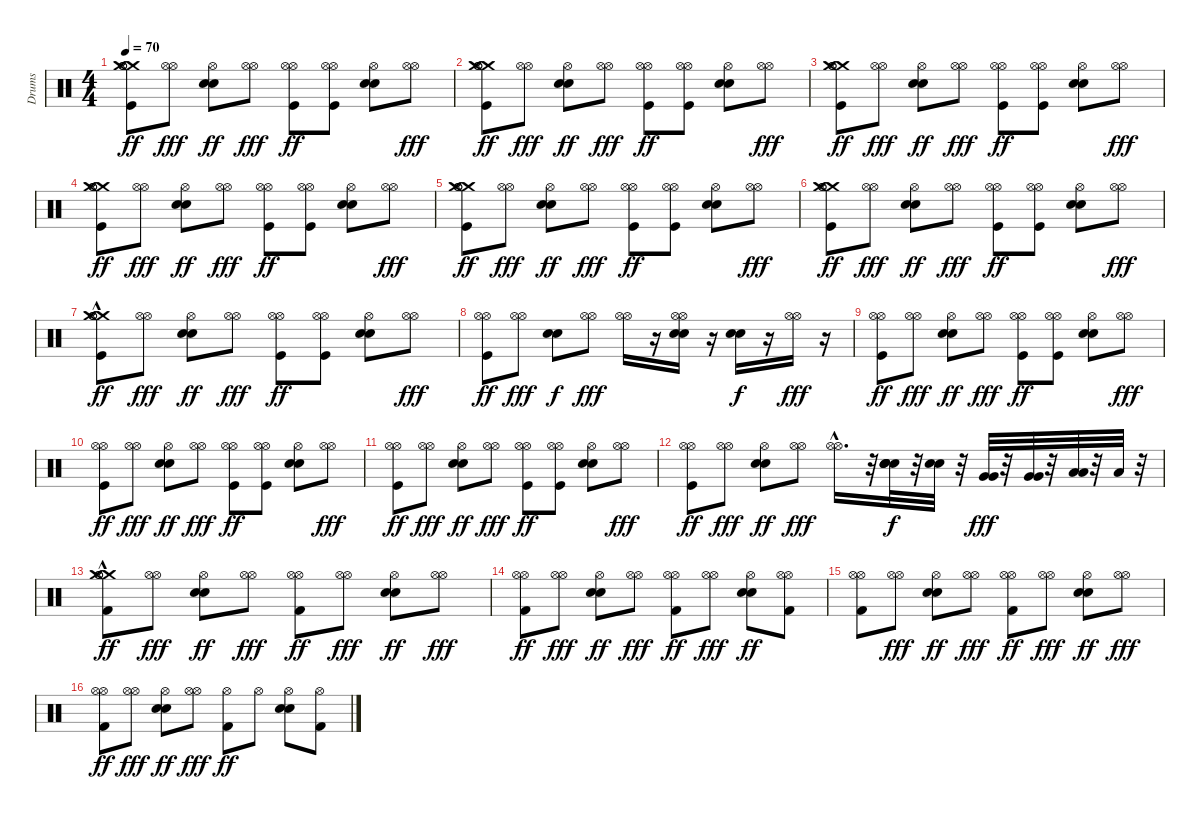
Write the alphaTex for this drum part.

\track ("Drums" "Drums") {instrument percussion}
\staff {score}
\articulation defaults
\ts (4 4)
\tempo 70
\clef neutral
\ks c
("Crash medium (hit)" "Crash medium (hit)" "Hi-Hat (open)" "Hi-Hat (open)" "Kick (hit)").8{dy ff} ("Hi-Hat (open)" "Hi-Hat (open)").8{dy fff} ("Hi-Hat (open)" "Electric Snare (hit)" "Electric Snare (hit)").8{dy ff} ("Hi-Hat (open)" "Hi-Hat (open)").8{dy fff} ("Hi-Hat (open)" "Hi-Hat (open)" "Kick (hit)").8{dy ff} ("Hi-Hat (open)" "Hi-Hat (open)" "Kick (hit)").8 ("Hi-Hat (open)" "Electric Snare (hit)" "Electric Snare (hit)").8 ("Hi-Hat (open)" "Hi-Hat (open)").8{dy fff} |
("Crash medium (hit)" "Crash medium (hit)" "Hi-Hat (open)" "Hi-Hat (open)" "Kick (hit)").8{dy ff} ("Hi-Hat (open)" "Hi-Hat (open)").8{dy fff} ("Hi-Hat (open)" "Electric Snare (hit)" "Electric Snare (hit)").8{dy ff} ("Hi-Hat (open)" "Hi-Hat (open)").8{dy fff} ("Hi-Hat (open)" "Hi-Hat (open)" "Kick (hit)").8{dy ff} ("Hi-Hat (open)" "Hi-Hat (open)" "Kick (hit)").8 ("Hi-Hat (open)" "Electric Snare (hit)" "Electric Snare (hit)").8 ("Hi-Hat (open)" "Hi-Hat (open)").8{dy fff} |
("Crash medium (hit)" "Crash medium (hit)" "Hi-Hat (open)" "Hi-Hat (open)" "Kick (hit)").8{dy ff} ("Hi-Hat (open)" "Hi-Hat (open)").8{dy fff} ("Hi-Hat (open)" "Electric Snare (hit)" "Electric Snare (hit)").8{dy ff} ("Hi-Hat (open)" "Hi-Hat (open)").8{dy fff} ("Hi-Hat (open)" "Hi-Hat (open)" "Kick (hit)").8{dy ff} ("Hi-Hat (open)" "Hi-Hat (open)" "Kick (hit)").8 ("Hi-Hat (open)" "Electric Snare (hit)" "Electric Snare (hit)").8 ("Hi-Hat (open)" "Hi-Hat (open)").8{dy fff} |
("Crash medium (hit)" "Crash medium (hit)" "Hi-Hat (open)" "Hi-Hat (open)" "Kick (hit)").8{dy ff} ("Hi-Hat (open)" "Hi-Hat (open)").8{dy fff} ("Hi-Hat (open)" "Electric Snare (hit)" "Electric Snare (hit)").8{dy ff} ("Hi-Hat (open)" "Hi-Hat (open)").8{dy fff} ("Hi-Hat (open)" "Hi-Hat (open)" "Kick (hit)").8{dy ff} ("Hi-Hat (open)" "Hi-Hat (open)" "Kick (hit)").8 ("Hi-Hat (open)" "Electric Snare (hit)" "Electric Snare (hit)").8 ("Hi-Hat (open)" "Hi-Hat (open)").8{dy fff} |
("Crash medium (hit)" "Crash medium (hit)" "Hi-Hat (open)" "Hi-Hat (open)" "Kick (hit)").8{dy ff} ("Hi-Hat (open)" "Hi-Hat (open)").8{dy fff} ("Hi-Hat (open)" "Electric Snare (hit)" "Electric Snare (hit)").8{dy ff} ("Hi-Hat (open)" "Hi-Hat (open)").8{dy fff} ("Hi-Hat (open)" "Hi-Hat (open)" "Kick (hit)").8{dy ff} ("Hi-Hat (open)" "Hi-Hat (open)" "Kick (hit)").8 ("Hi-Hat (open)" "Electric Snare (hit)" "Electric Snare (hit)").8 ("Hi-Hat (open)" "Hi-Hat (open)").8{dy fff} |
("Crash medium (hit)" "Crash medium (hit)" "Hi-Hat (open)" "Hi-Hat (open)" "Kick (hit)").8{dy ff} ("Hi-Hat (open)" "Hi-Hat (open)").8{dy fff} ("Hi-Hat (open)" "Electric Snare (hit)" "Electric Snare (hit)").8{dy ff} ("Hi-Hat (open)" "Hi-Hat (open)").8{dy fff} ("Hi-Hat (open)" "Hi-Hat (open)" "Kick (hit)").8{dy ff} ("Hi-Hat (open)" "Hi-Hat (open)" "Kick (hit)").8 ("Hi-Hat (open)" "Electric Snare (hit)" "Electric Snare (hit)").8 ("Hi-Hat (open)" "Hi-Hat (open)").8{dy fff} |
("Crash medium (hit)"{hac} "Hi-Hat (open)" "Hi-Hat (open)" "Crash medium (hit)"{hac} "Kick (hit)").8{dy ff} ("Hi-Hat (open)" "Hi-Hat (open)").8{dy fff} ("Hi-Hat (open)" "Electric Snare (hit)" "Electric Snare (hit)").8{dy ff} ("Hi-Hat (open)" "Hi-Hat (open)").8{dy fff} ("Hi-Hat (open)" "Hi-Hat (open)" "Kick (hit)").8{dy ff} ("Hi-Hat (open)" "Hi-Hat (open)" "Kick (hit)").8 ("Hi-Hat (open)" "Electric Snare (hit)" "Electric Snare (hit)").8 ("Hi-Hat (open)" "Hi-Hat (open)").8{dy fff} |
("Hi-Hat (open)" "Hi-Hat (open)" "Kick (hit)").8{dy ff} ("Hi-Hat (open)" "Hi-Hat (open)").8{dy fff} ("Electric Snare (hit)" "Electric Snare (hit)").8{dy f} ("Hi-Hat (open)" "Hi-Hat (open)").8{dy fff} ("Hi-Hat (open)" "Hi-Hat (open)").16 r.16 ("Hi-Hat (open)" "Hi-Hat (open)" "Electric Snare (hit)" "Electric Snare (hit)").16 r.16 ("Electric Snare (hit)" "Electric Snare (hit)").16{dy f} r.16 ("Hi-Hat (open)" "Hi-Hat (open)").16{dy fff} r.16 |
("Hi-Hat (open)" "Hi-Hat (open)" "Kick (hit)").8{dy ff} ("Hi-Hat (open)" "Hi-Hat (open)").8{dy fff} ("Hi-Hat (open)" "Electric Snare (hit)" "Electric Snare (hit)").8{dy ff} ("Hi-Hat (open)" "Hi-Hat (open)").8{dy fff} ("Hi-Hat (open)" "Hi-Hat (open)" "Kick (hit)").8{dy ff} ("Hi-Hat (open)" "Hi-Hat (open)" "Kick (hit)").8 ("Hi-Hat (open)" "Electric Snare (hit)" "Electric Snare (hit)").8 ("Hi-Hat (open)" "Hi-Hat (open)").8{dy fff} |
("Hi-Hat (open)" "Hi-Hat (open)" "Kick (hit)").8{dy ff} ("Hi-Hat (open)" "Hi-Hat (open)").8{dy fff} ("Hi-Hat (open)" "Electric Snare (hit)" "Electric Snare (hit)").8{dy ff} ("Hi-Hat (open)" "Hi-Hat (open)").8{dy fff} ("Hi-Hat (open)" "Hi-Hat (open)" "Kick (hit)").8{dy ff} ("Hi-Hat (open)" "Hi-Hat (open)" "Kick (hit)").8 ("Hi-Hat (open)" "Electric Snare (hit)" "Electric Snare (hit)").8 ("Hi-Hat (open)" "Hi-Hat (open)").8{dy fff} |
("Hi-Hat (open)" "Hi-Hat (open)" "Kick (hit)").8{dy ff} ("Hi-Hat (open)" "Hi-Hat (open)").8{dy fff} ("Hi-Hat (open)" "Electric Snare (hit)" "Electric Snare (hit)").8{dy ff} ("Hi-Hat (open)" "Hi-Hat (open)").8{dy fff} ("Hi-Hat (open)" "Hi-Hat (open)" "Kick (hit)").8{dy ff} ("Hi-Hat (open)" "Hi-Hat (open)" "Kick (hit)").8 ("Hi-Hat (open)" "Electric Snare (hit)" "Electric Snare (hit)").8 ("Hi-Hat (open)" "Hi-Hat (open)").8{dy fff} |
("Hi-Hat (open)" "Hi-Hat (open)" "Kick (hit)").8{dy ff} ("Hi-Hat (open)" "Hi-Hat (open)").8{dy fff} ("Hi-Hat (open)" "Electric Snare (hit)" "Electric Snare (hit)").8{dy ff} ("Hi-Hat (open)" "Hi-Hat (open)").8{dy fff} ("Hi-Hat (open)"{hac} "Hi-Hat (open)"{hac}).16{d} r.32 ("Electric Snare (hit)" "Electric Snare (hit)" "Electric Snare (hit)" "Electric Snare (hit)").32{dy f} r.32 ("Electric Snare (hit)" "Electric Snare (hit)").32 r.32 ("Very Low Tom (hit)" "Very Low Tom (hit)").32{dy fff} r.32 ("Very Low Tom (hit)" "Very Low Tom (hit)").32 r.32 ("Low Floor Tom (hit)" "Low Floor Tom (hit)").32 r.32 "Low Floor Tom (hit)".32 r.32 |
("Crash medium (hit)"{hac} "Crash medium (hit)"{hac} "Hi-Hat (open)" "Hi-Hat (open)" "Kick (hit) 2").8{dy ff} ("Hi-Hat (open)" "Hi-Hat (open)").8{dy fff} ("Hi-Hat (open)" "Electric Snare (hit)" "Electric Snare (hit)").8{dy ff} ("Hi-Hat (open)" "Hi-Hat (open)").8{dy fff} ("Hi-Hat (open)" "Hi-Hat (open)" "Kick (hit) 2").8{dy ff} ("Hi-Hat (open)" "Hi-Hat (open)").8{dy fff} ("Hi-Hat (open)" "Electric Snare (hit)" "Electric Snare (hit)").8{dy ff} ("Hi-Hat (open)" "Hi-Hat (open)").8{dy fff} |
("Hi-Hat (open)" "Hi-Hat (open)" "Kick (hit) 2").8{dy ff} ("Hi-Hat (open)" "Hi-Hat (open)").8{dy fff} ("Hi-Hat (open)" "Electric Snare (hit)" "Electric Snare (hit)").8{dy ff} ("Hi-Hat (open)" "Hi-Hat (open)").8{dy fff} ("Hi-Hat (open)" "Hi-Hat (open)" "Kick (hit) 2").8{dy ff} ("Hi-Hat (open)" "Hi-Hat (open)").8{dy fff} ("Hi-Hat (open)" "Electric Snare (hit)" "Electric Snare (hit)").8{dy ff} ("Hi-Hat (open)" "Hi-Hat (open)" "Kick (hit) 2").8 |
("Hi-Hat (open)" "Hi-Hat (open)" "Kick (hit) 2").8 ("Hi-Hat (open)" "Hi-Hat (open)").8{dy fff} ("Electric Snare (hit)" "Electric Snare (hit)" "Hi-Hat (open)").8{dy ff} ("Hi-Hat (open)" "Hi-Hat (open)").8{dy fff} ("Hi-Hat (open)" "Hi-Hat (open)" "Kick (hit) 2").8{dy ff} ("Hi-Hat (open)" "Hi-Hat (open)").8{dy fff} ("Hi-Hat (open)" "Electric Snare (hit)" "Electric Snare (hit)").8{dy ff} ("Hi-Hat (open)" "Hi-Hat (open)").8{dy fff} |
("Hi-Hat (open)" "Hi-Hat (open)" "Kick (hit) 2").8{dy ff} ("Hi-Hat (open)" "Hi-Hat (open)").8{dy fff} ("Hi-Hat (open)" "Electric Snare (hit)" "Electric Snare (hit)").8{dy ff} ("Hi-Hat (open)" "Hi-Hat (open)").8{dy fff} ("Hi-Hat (open)" "Kick (hit) 2").8{dy ff} "Hi-Hat (open)".8 ("Hi-Hat (open)" "Electric Snare (hit)" "Electric Snare (hit)").8 ("Hi-Hat (open)" "Kick (hit) 2").8
